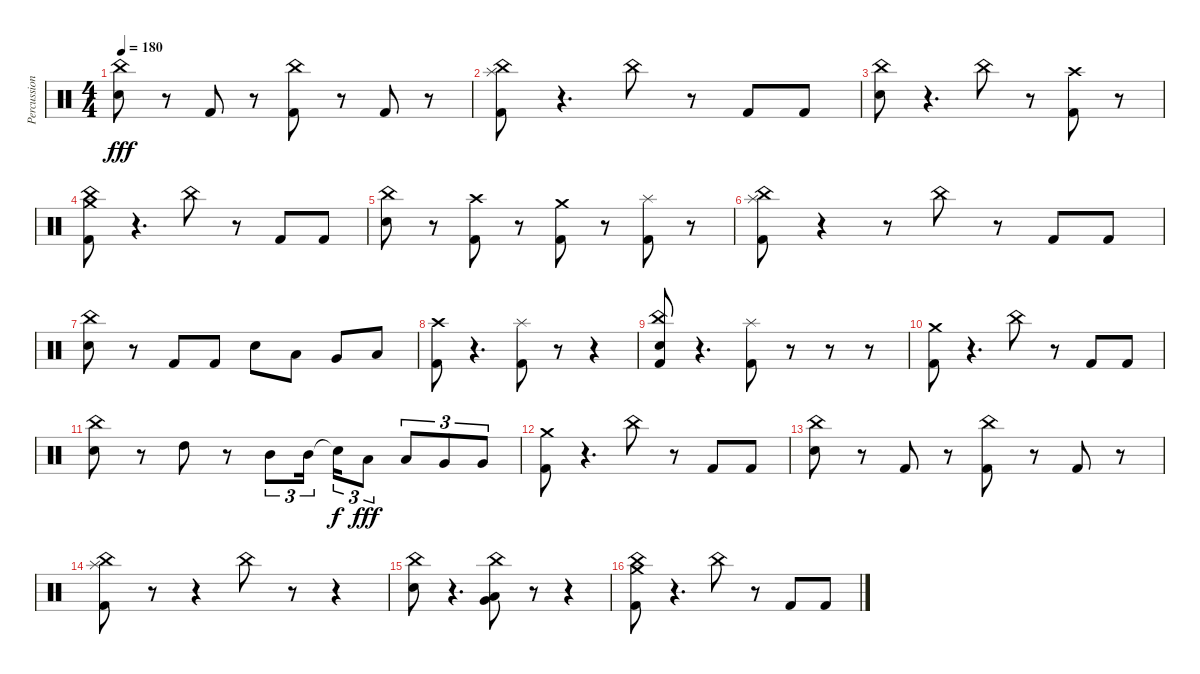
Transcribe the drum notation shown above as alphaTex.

\track ("Percussion" "Percussion") {instrument percussion}
\staff {score}
\articulation defaults
\ts (4 4)
\tempo 180
\clef neutral
\ks c
("Snare (hit) 2" "China (hit)").8{dy fff} r.8 "Kick (hit) 2".8 r.8 ("Kick (hit) 2" "China (hit)").8 r.8 "Kick (hit) 2".8 r.8 |
("Kick (hit) 2" "China (hit)" "Splash (hit)").8 r.4{d} "China (hit)".8 r.8 "Kick (hit) 2".8 "Kick (hit) 2".8 |
("Snare (hit) 2" "China (hit)").8 r.4{d} "China (hit)".8 r.8 ("Kick (hit) 2" "Crash high (hit)").8 r.8 |
("China (hit)" "Crash medium (hit)" "Kick (hit) 2").8 r.4{d} "China (hit)".8 r.8 "Kick (hit) 2".8 "Kick (hit) 2".8 |
("Snare (hit) 2" "China (hit)").8 r.8 ("Kick (hit) 2" "Crash high (hit)").8 r.8 ("Kick (hit) 2" "Crash medium (hit)").8 r.8 ("Kick (hit) 2" "Splash (hit)").8 r.8 |
("Kick (hit) 2" "China (hit)" "Splash (hit)").8 r.4 r.8 "China (hit)".8 r.8 "Kick (hit) 2".8 "Kick (hit) 2".8 |
("Snare (hit) 2" "China (hit)").8 r.8 "Kick (hit) 2".8 "Kick (hit) 2".8 "Snare (hit) 2".8 "Low Tom (hit)".8 "Very Low Tom (hit)".8 "Low Floor Tom (hit)".8 |
("Kick (hit) 2" "Crash high (hit)").8 r.4{d} ("Kick (hit) 2" "Splash (hit)").8 r.8 r.4 |
("Kick (hit) 2" "Snare (hit) 2" "China (hit)").8 r.4{d} ("Kick (hit) 2" "Splash (hit)").8 r.8 r.8 r.8 |
("Kick (hit) 2" "Crash medium (hit)").8 r.4{d} "China (hit)".8 r.8 "Kick (hit) 2".8 "Kick (hit) 2".8 |
("Snare (hit) 2" "China (hit)").8 r.8 "High Tom (hit)".8 r.8 "Mid Tom (hit)".8{tu (3 2)} "Mid Tom (hit)".16{tu (3 2) beam splitsecondary} "Snare (hit)"{t}.16{tu (3 2) dy f} "Low Tom (hit)".8{tu (3 2) dy fff} "Low Tom (hit)".8{tu (3 2)} "Very Low Tom (hit)".8{tu (3 2)} "Very Low Tom (hit)".8{tu (3 2)} |
("Crash medium (hit)" "Kick (hit) 2").8 r.4{d} "China (hit)".8 r.8 "Kick (hit) 2".8 "Kick (hit) 2".8 |
("Snare (hit) 2" "China (hit)").8 r.8 "Kick (hit) 2".8 r.8 ("Kick (hit) 2" "China (hit)").8 r.8 "Kick (hit) 2".8 r.8 |
("Kick (hit) 2" "China (hit)" "Splash (hit)").8 r.8 r.4 "China (hit)".8 r.8 r.4 |
("Snare (hit) 2" "China (hit)").8 r.4{d} ("Low Floor Tom (hit)" "Very Low Tom (hit)" "China (hit)").8 r.8 r.4 |
("China (hit)" "Crash medium (hit)" "Kick (hit) 2").8 r.4{d} "China (hit)".8 r.8 "Kick (hit) 2".8 "Kick (hit) 2".8
